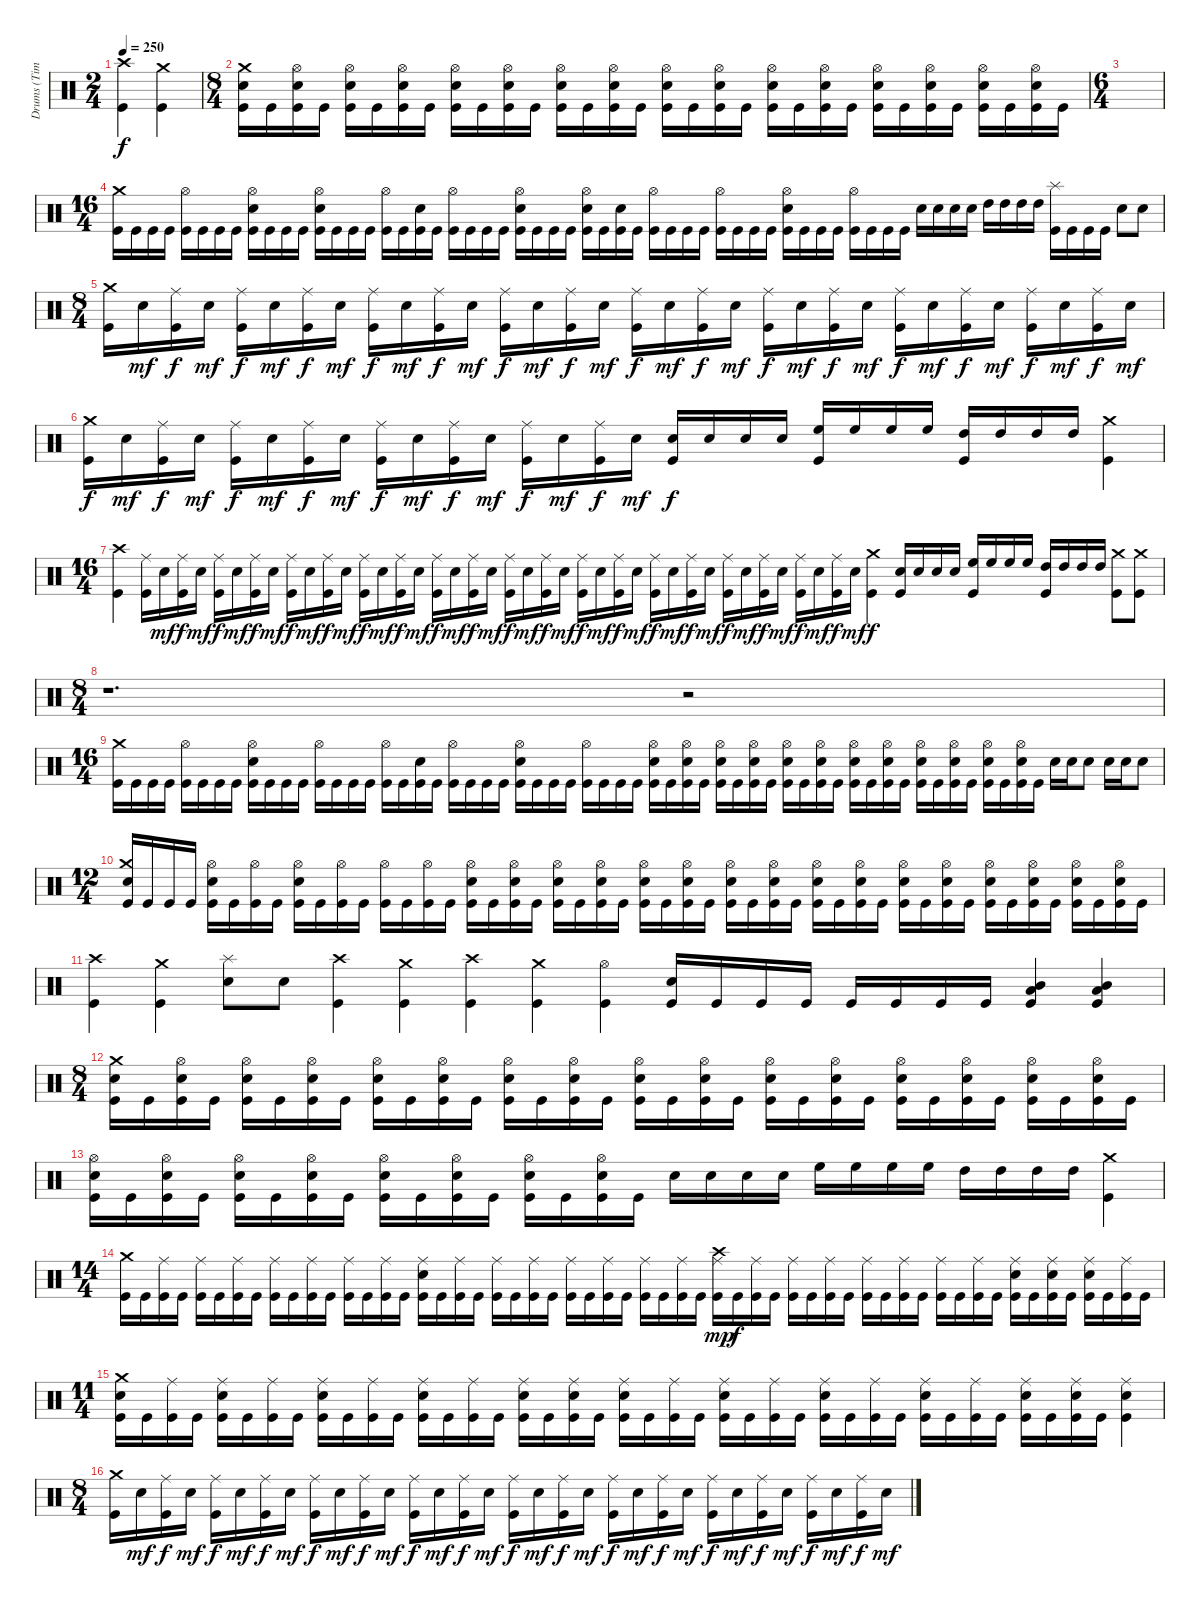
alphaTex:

\track ("Drums (Tim Yeung)" "Drums (Tim") {instrument percussion}
\staff {score}
\articulation defaults
\ts (2 4)
\tempo 250
\clef neutral
\ks c
("Crash high (hit)" "Kick (hit)").4{dy f} ("Crash medium (hit)" "Kick (hit)").4 |
\ts (8 4)
("Crash medium (hit)" "Electric Snare (hit)" "Kick (hit)").16 "Kick (hit)".16 ("Hi-Hat (open)" "Electric Snare (hit)" "Kick (hit)").16 "Kick (hit)".16 ("Hi-Hat (open)" "Electric Snare (hit)" "Kick (hit)").16 "Kick (hit)".16 ("Hi-Hat (open)" "Electric Snare (hit)" "Kick (hit)").16 "Kick (hit)".16 ("Hi-Hat (open)" "Electric Snare (hit)" "Kick (hit)").16 "Kick (hit)".16 ("Hi-Hat (open)" "Electric Snare (hit)" "Kick (hit)").16 "Kick (hit)".16 ("Hi-Hat (open)" "Electric Snare (hit)" "Kick (hit)").16 "Kick (hit)".16 ("Hi-Hat (open)" "Electric Snare (hit)" "Kick (hit)").16 "Kick (hit)".16 ("Hi-Hat (open)" "Electric Snare (hit)" "Kick (hit)").16 "Kick (hit)".16 ("Hi-Hat (open)" "Electric Snare (hit)" "Kick (hit)").16 "Kick (hit)".16 ("Hi-Hat (open)" "Electric Snare (hit)" "Kick (hit)").16 "Kick (hit)".16 ("Hi-Hat (open)" "Electric Snare (hit)" "Kick (hit)").16 "Kick (hit)".16 ("Hi-Hat (open)" "Electric Snare (hit)" "Kick (hit)").16 "Kick (hit)".16 ("Hi-Hat (open)" "Electric Snare (hit)" "Kick (hit)").16 "Kick (hit)".16 ("Hi-Hat (open)" "Electric Snare (hit)" "Kick (hit)").16 "Kick (hit)".16 ("Hi-Hat (open)" "Electric Snare (hit)" "Kick (hit)").16 "Kick (hit)".16 |
\ts (6 4)
|
\ts (16 4)
("Crash medium (hit)" "Kick (hit)").16 "Kick (hit)".16 "Kick (hit)".16 "Kick (hit)".16 ("Hi-Hat (open)" "Kick (hit)").16 "Kick (hit)".16 "Kick (hit)".16 "Kick (hit)".16 ("Hi-Hat (open)" "Electric Snare (hit)" "Kick (hit)").16 "Kick (hit)".16 "Kick (hit)".16 "Kick (hit)".16 ("Hi-Hat (open)" "Electric Snare (hit)" "Kick (hit)").16 "Kick (hit)".16 "Kick (hit)".16 "Kick (hit)".16 ("Hi-Hat (open)" "Kick (hit)").16 "Kick (hit)".16 ("Electric Snare (hit)" "Kick (hit)").16 "Kick (hit)".16 ("Hi-Hat (open)" "Kick (hit)").16 "Kick (hit)".16 "Kick (hit)".16 "Kick (hit)".16 ("Hi-Hat (open)" "Electric Snare (hit)" "Kick (hit)").16 "Kick (hit)".16 "Kick (hit)".16 "Kick (hit)".16 ("Hi-Hat (open)" "Electric Snare (hit)" "Kick (hit)").16 "Kick (hit)".16 ("Electric Snare (hit)" "Kick (hit)").16 "Kick (hit)".16 ("Hi-Hat (open)" "Kick (hit)").16 "Kick (hit)".16 "Kick (hit)".16 "Kick (hit)".16 ("Hi-Hat (open)" "Kick (hit)").16 "Kick (hit)".16 "Kick (hit)".16 "Kick (hit)".16 ("Hi-Hat (open)" "Electric Snare (hit)" "Kick (hit)").16 "Kick (hit)".16 "Kick (hit)".16 "Kick (hit)".16 ("Hi-Hat (open)" "Kick (hit)").16 "Kick (hit)".16 "Kick (hit)".16 "Kick (hit)".16 "Electric Snare (hit)".16 "Electric Snare (hit)".16 "Electric Snare (hit)".16 "Electric Snare (hit)".16 "High Tom (hit)".16 "High Tom (hit)".16 "High Tom (hit)".16 "High Tom (hit)".16 ("Splash (hit)" "Kick (hit)").16 "Kick (hit)".16 "Kick (hit)".16 "Kick (hit)".16 "Electric Snare (hit)".8 "Electric Snare (hit)".8 |
\ts (8 4)
("Crash medium (hit)" "Kick (hit)").16 "Electric Snare (hit)".16{dy mf} ("Ride (middle)" "Kick (hit)").16{dy f} "Electric Snare (hit)".16{dy mf} ("Ride (middle)" "Kick (hit)").16{dy f} "Electric Snare (hit)".16{dy mf} ("Ride (middle)" "Kick (hit)").16{dy f} "Electric Snare (hit)".16{dy mf} ("Ride (middle)" "Kick (hit)").16{dy f} "Electric Snare (hit)".16{dy mf} ("Ride (middle)" "Kick (hit)").16{dy f} "Electric Snare (hit)".16{dy mf} ("Ride (middle)" "Kick (hit)").16{dy f} "Electric Snare (hit)".16{dy mf} ("Ride (middle)" "Kick (hit)").16{dy f} "Electric Snare (hit)".16{dy mf} ("Ride (middle)" "Kick (hit)").16{dy f} "Electric Snare (hit)".16{dy mf} ("Ride (middle)" "Kick (hit)").16{dy f} "Electric Snare (hit)".16{dy mf} ("Ride (middle)" "Kick (hit)").16{dy f} "Electric Snare (hit)".16{dy mf} ("Ride (middle)" "Kick (hit)").16{dy f} "Electric Snare (hit)".16{dy mf} ("Ride (middle)" "Kick (hit)").16{dy f} "Electric Snare (hit)".16{dy mf} ("Ride (middle)" "Kick (hit)").16{dy f} "Electric Snare (hit)".16{dy mf} ("Ride (middle)" "Kick (hit)").16{dy f} "Electric Snare (hit)".16{dy mf} ("Ride (middle)" "Kick (hit)").16{dy f} "Electric Snare (hit)".16{dy mf} |
("Crash medium (hit)" "Kick (hit)").16{dy f} "Electric Snare (hit)".16{dy mf} ("Ride (middle)" "Kick (hit)").16{dy f} "Electric Snare (hit)".16{dy mf} ("Ride (middle)" "Kick (hit)").16{dy f} "Electric Snare (hit)".16{dy mf} ("Ride (middle)" "Kick (hit)").16{dy f} "Electric Snare (hit)".16{dy mf} ("Ride (middle)" "Kick (hit)").16{dy f} "Electric Snare (hit)".16{dy mf} ("Ride (middle)" "Kick (hit)").16{dy f} "Electric Snare (hit)".16{dy mf} ("Ride (middle)" "Kick (hit)").16{dy f} "Electric Snare (hit)".16{dy mf} ("Ride (middle)" "Kick (hit)").16{dy f} "Electric Snare (hit)".16{dy mf} ("Electric Snare (hit)" "Kick (hit)").16{dy f} "Electric Snare (hit)".16 "Electric Snare (hit)".16 "Electric Snare (hit)".16 ("High Floor Tom (hit)" "Kick (hit)").16 "High Floor Tom (hit)".16 "High Floor Tom (hit)".16 "High Floor Tom (hit)".16 ("High Tom (hit)" "Kick (hit)").16 "High Tom (hit)".16 "High Tom (hit)".16 "High Tom (hit)".16 ("Crash medium (hit)" "Kick (hit)").4 |
\ts (16 4)
("Crash high (hit)" "Kick (hit)").4 ("Ride (middle)" "Kick (hit)").16 "Electric Snare (hit)".16{dy mf} ("Ride (middle)" "Kick (hit)").16{dy f} "Electric Snare (hit)".16{dy mf} ("Ride (middle)" "Kick (hit)").16{dy f} "Electric Snare (hit)".16{dy mf} ("Ride (middle)" "Kick (hit)").16{dy f} "Electric Snare (hit)".16{dy mf} ("Ride (middle)" "Kick (hit)").16{dy f} "Electric Snare (hit)".16{dy mf} ("Ride (middle)" "Kick (hit)").16{dy f} "Electric Snare (hit)".16{dy mf} ("Ride (middle)" "Kick (hit)").16{dy f} "Electric Snare (hit)".16{dy mf} ("Ride (middle)" "Kick (hit)").16{dy f} "Electric Snare (hit)".16{dy mf} ("Ride (middle)" "Kick (hit)").16{dy f} "Electric Snare (hit)".16{dy mf} ("Ride (middle)" "Kick (hit)").16{dy f} "Electric Snare (hit)".16{dy mf} ("Ride (middle)" "Kick (hit)").16{dy f} "Electric Snare (hit)".16{dy mf} ("Ride (middle)" "Kick (hit)").16{dy f} "Electric Snare (hit)".16{dy mf} ("Ride (middle)" "Kick (hit)").16{dy f} "Electric Snare (hit)".16{dy mf} ("Ride (middle)" "Kick (hit)").16{dy f} "Electric Snare (hit)".16{dy mf} ("Ride (middle)" "Kick (hit)").16{dy f} "Electric Snare (hit)".16{dy mf} ("Ride (middle)" "Kick (hit)").16{dy f} "Electric Snare (hit)".16{dy mf} ("Ride (middle)" "Kick (hit)").16{dy f} "Electric Snare (hit)".16{dy mf} ("Ride (middle)" "Kick (hit)").16{dy f} "Electric Snare (hit)".16{dy mf} ("Ride (middle)" "Kick (hit)").16{dy f} "Electric Snare (hit)".16{dy mf} ("Ride (middle)" "Kick (hit)").16{dy f} "Electric Snare (hit)".16{dy mf} ("Crash medium (hit)" "Kick (hit)").4{dy f} ("Electric Snare (hit)" "Kick (hit)").16 "Electric Snare (hit)".16 "Electric Snare (hit)".16 "Electric Snare (hit)".16 ("High Floor Tom (hit)" "Kick (hit)").16 "High Floor Tom (hit)".16 "High Floor Tom (hit)".16 "High Floor Tom (hit)".16 ("High Tom (hit)" "Kick (hit)").16 "High Tom (hit)".16 "High Tom (hit)".16 "High Tom (hit)".16 ("Crash medium (hit)" "Kick (hit)").8 ("Crash medium (hit)" "Kick (hit)").8 |
\ts (8 4)
r.1{d volume 0} r.2 |
\ts (16 4)
("Crash medium (hit)" "Kick (hit)").16{volume 16} "Kick (hit)".16 "Kick (hit)".16 "Kick (hit)".16 ("Hi-Hat (open)" "Kick (hit)").16 "Kick (hit)".16 "Kick (hit)".16 "Kick (hit)".16 ("Hi-Hat (open)" "Electric Snare (hit)" "Kick (hit)").16 "Kick (hit)".16 "Kick (hit)".16 "Kick (hit)".16 ("Hi-Hat (open)" "Kick (hit)").16 "Kick (hit)".16 "Kick (hit)".16 "Kick (hit)".16 ("Hi-Hat (open)" "Kick (hit)").16 "Kick (hit)".16 ("Electric Snare (hit)" "Kick (hit)").16 "Kick (hit)".16 ("Hi-Hat (open)" "Kick (hit)").16 "Kick (hit)".16 "Kick (hit)".16 "Kick (hit)".16 ("Hi-Hat (open)" "Electric Snare (hit)" "Kick (hit)").16 "Kick (hit)".16 "Kick (hit)".16 "Kick (hit)".16 ("Hi-Hat (open)" "Kick (hit)").16 "Kick (hit)".16 "Kick (hit)".16 "Kick (hit)".16 ("Hi-Hat (open)" "Electric Snare (hit)" "Kick (hit)").16 "Kick (hit)".16 ("Hi-Hat (open)" "Electric Snare (hit)" "Kick (hit)").16 "Kick (hit)".16 ("Hi-Hat (open)" "Electric Snare (hit)" "Kick (hit)").16 "Kick (hit)".16 ("Hi-Hat (open)" "Electric Snare (hit)" "Kick (hit)").16 "Kick (hit)".16 ("Hi-Hat (open)" "Electric Snare (hit)" "Kick (hit)").16 "Kick (hit)".16 ("Hi-Hat (open)" "Electric Snare (hit)" "Kick (hit)").16 "Kick (hit)".16 ("Hi-Hat (open)" "Electric Snare (hit)" "Kick (hit)").16 "Kick (hit)".16 ("Hi-Hat (open)" "Electric Snare (hit)" "Kick (hit)").16 "Kick (hit)".16 ("Hi-Hat (open)" "Electric Snare (hit)" "Kick (hit)").16 "Kick (hit)".16 ("Hi-Hat (open)" "Electric Snare (hit)" "Kick (hit)").16 "Kick (hit)".16 ("Hi-Hat (open)" "Electric Snare (hit)" "Kick (hit)").16 "Kick (hit)".16 ("Hi-Hat (open)" "Electric Snare (hit)" "Kick (hit)").16 "Kick (hit)".16 "Electric Snare (hit)".16 "Electric Snare (hit)".16 "Electric Snare (hit)".8 "Electric Snare (hit)".16 "Electric Snare (hit)".16 "Electric Snare (hit)".8 |
\ts (12 4)
("Crash medium (hit)" "Electric Snare (hit)" "Kick (hit)").16 "Kick (hit)".16 "Kick (hit)".16 "Kick (hit)".16 ("Hi-Hat (open)" "Electric Snare (hit)" "Kick (hit)").16 "Kick (hit)".16 ("Hi-Hat (open)" "Kick (hit)").16 "Kick (hit)".16 ("Hi-Hat (open)" "Electric Snare (hit)" "Kick (hit)").16 "Kick (hit)".16 ("Hi-Hat (open)" "Kick (hit)").16 "Kick (hit)".16 ("Hi-Hat (open)" "Kick (hit)").16 "Kick (hit)".16 ("Hi-Hat (open)" "Kick (hit)").16 "Kick (hit)".16 ("Hi-Hat (open)" "Electric Snare (hit)" "Kick (hit)").16 "Kick (hit)".16 ("Hi-Hat (open)" "Electric Snare (hit)" "Kick (hit)").16 "Kick (hit)".16 ("Hi-Hat (open)" "Electric Snare (hit)" "Kick (hit)").16 "Kick (hit)".16 ("Hi-Hat (open)" "Electric Snare (hit)" "Kick (hit)").16 "Kick (hit)".16 ("Hi-Hat (open)" "Electric Snare (hit)" "Kick (hit)").16 "Kick (hit)".16 ("Hi-Hat (open)" "Electric Snare (hit)" "Kick (hit)").16 "Kick (hit)".16 ("Hi-Hat (open)" "Electric Snare (hit)" "Kick (hit)").16 "Kick (hit)".16 ("Hi-Hat (open)" "Electric Snare (hit)" "Kick (hit)").16 "Kick (hit)".16 ("Hi-Hat (open)" "Electric Snare (hit)" "Kick (hit)").16 "Kick (hit)".16 ("Hi-Hat (open)" "Electric Snare (hit)" "Kick (hit)").16 "Kick (hit)".16 ("Hi-Hat (open)" "Electric Snare (hit)" "Kick (hit)").16 "Kick (hit)".16 ("Hi-Hat (open)" "Electric Snare (hit)" "Kick (hit)").16 "Kick (hit)".16 ("Hi-Hat (open)" "Electric Snare (hit)" "Kick (hit)").16 "Kick (hit)".16 ("Hi-Hat (open)" "Electric Snare (hit)" "Kick (hit)").16 "Kick (hit)".16 ("Hi-Hat (open)" "Electric Snare (hit)" "Kick (hit)").16 "Kick (hit)".16 ("Hi-Hat (open)" "Electric Snare (hit)" "Kick (hit)").16 "Kick (hit)".16 |
("Crash high (hit)" "Kick (hit)").4 ("Crash medium (hit)" "Kick (hit)").4 ("Splash (hit)" "Electric Snare (hit)").8 "Electric Snare (hit)".8 ("Crash high (hit)" "Kick (hit)").4 ("Crash medium (hit)" "Kick (hit)").4 ("Crash high (hit)" "Kick (hit)").4 ("Crash medium (hit)" "Kick (hit)").4 ("Hi-Hat (open)" "Kick (hit)").4 ("Electric Snare (hit)" "Kick (hit)").16 "Kick (hit)".16 "Kick (hit)".16 "Kick (hit)".16 "Kick (hit)".16 "Kick (hit)".16 "Kick (hit)".16 "Kick (hit)".16 ("Mid Tom (hit)" "Low Tom (hit)" "Kick (hit)").4 ("Mid Tom (hit)" "Low Tom (hit)" "Kick (hit)").4 |
\ts (8 4)
("Crash medium (hit)" "Electric Snare (hit)" "Kick (hit)").16 "Kick (hit)".16 ("Hi-Hat (open)" "Electric Snare (hit)" "Kick (hit)").16 "Kick (hit)".16 ("Hi-Hat (open)" "Electric Snare (hit)" "Kick (hit)").16 "Kick (hit)".16 ("Hi-Hat (open)" "Electric Snare (hit)" "Kick (hit)").16 "Kick (hit)".16 ("Hi-Hat (open)" "Electric Snare (hit)" "Kick (hit)").16 "Kick (hit)".16 ("Hi-Hat (open)" "Electric Snare (hit)" "Kick (hit)").16 "Kick (hit)".16 ("Hi-Hat (open)" "Electric Snare (hit)" "Kick (hit)").16 "Kick (hit)".16 ("Hi-Hat (open)" "Electric Snare (hit)" "Kick (hit)").16 "Kick (hit)".16 ("Hi-Hat (open)" "Electric Snare (hit)" "Kick (hit)").16 "Kick (hit)".16 ("Hi-Hat (open)" "Electric Snare (hit)" "Kick (hit)").16 "Kick (hit)".16 ("Hi-Hat (open)" "Electric Snare (hit)" "Kick (hit)").16 "Kick (hit)".16 ("Hi-Hat (open)" "Electric Snare (hit)" "Kick (hit)").16 "Kick (hit)".16 ("Hi-Hat (open)" "Electric Snare (hit)" "Kick (hit)").16 "Kick (hit)".16 ("Hi-Hat (open)" "Electric Snare (hit)" "Kick (hit)").16 "Kick (hit)".16 ("Hi-Hat (open)" "Electric Snare (hit)" "Kick (hit)").16 "Kick (hit)".16 ("Hi-Hat (open)" "Electric Snare (hit)" "Kick (hit)").16 "Kick (hit)".16 |
("Hi-Hat (open)" "Electric Snare (hit)" "Kick (hit)").16 "Kick (hit)".16 ("Hi-Hat (open)" "Electric Snare (hit)" "Kick (hit)").16 "Kick (hit)".16 ("Hi-Hat (open)" "Electric Snare (hit)" "Kick (hit)").16 "Kick (hit)".16 ("Hi-Hat (open)" "Electric Snare (hit)" "Kick (hit)").16 "Kick (hit)".16 ("Hi-Hat (open)" "Electric Snare (hit)" "Kick (hit)").16 "Kick (hit)".16 ("Hi-Hat (open)" "Electric Snare (hit)" "Kick (hit)").16 "Kick (hit)".16 ("Hi-Hat (open)" "Electric Snare (hit)" "Kick (hit)").16 "Kick (hit)".16 ("Hi-Hat (open)" "Electric Snare (hit)" "Kick (hit)").16 "Kick (hit)".16 "Electric Snare (hit)".16 "Electric Snare (hit)".16 "Electric Snare (hit)".16 "Electric Snare (hit)".16 "High Floor Tom (hit)".16 "High Floor Tom (hit)".16 "High Floor Tom (hit)".16 "High Floor Tom (hit)".16 "High Tom (hit)".16 "High Tom (hit)".16 "High Tom (hit)".16 "High Tom (hit)".16 ("Crash medium (hit)" "Kick (hit)").4 |
\ts (14 4)
("Crash medium (hit)" "Kick (hit)").16 "Kick (hit)".16 ("Ride (middle)" "Kick (hit)").16 "Kick (hit)".16 ("Ride (middle)" "Kick (hit)").16 "Kick (hit)".16 ("Ride (middle)" "Kick (hit)").16 "Kick (hit)".16 ("Ride (middle)" "Kick (hit)").16 "Kick (hit)".16 ("Ride (middle)" "Kick (hit)").16 "Kick (hit)".16 ("Ride (middle)" "Kick (hit)").16 "Kick (hit)".16 ("Ride (middle)" "Kick (hit)").16 "Kick (hit)".16 ("Ride (middle)" "Electric Snare (hit)" "Kick (hit)").16 "Kick (hit)".16 ("Ride (middle)" "Kick (hit)").16 "Kick (hit)".16 ("Ride (middle)" "Kick (hit)").16 "Kick (hit)".16 ("Ride (middle)" "Kick (hit)").16 "Kick (hit)".16 ("Ride (middle)" "Kick (hit)").16 "Kick (hit)".16 ("Ride (middle)" "Kick (hit)").16 "Kick (hit)".16 ("Ride (middle)" "Kick (hit)").16 "Kick (hit)".16 ("Ride (middle)" "Kick (hit)").16 "Kick (hit)".16 ("Crash high (hit)" "Ride (middle)" "Kick (hit)").16{dy mp} "Kick (hit)".16{dy f} ("Ride (middle)" "Kick (hit)").16 "Kick (hit)".16 ("Ride (middle)" "Kick (hit)").16 "Kick (hit)".16 ("Ride (middle)" "Kick (hit)").16 "Kick (hit)".16 ("Ride (middle)" "Kick (hit)").16 "Kick (hit)".16 ("Ride (middle)" "Kick (hit)").16 "Kick (hit)".16 ("Ride (middle)" "Kick (hit)").16 "Kick (hit)".16 ("Ride (middle)" "Kick (hit)").16 "Kick (hit)".16 ("Ride (middle)" "Electric Snare (hit)" "Kick (hit)").16 "Kick (hit)".16 ("Ride (middle)" "Electric Snare (hit)" "Kick (hit)").16 "Kick (hit)".16 ("Ride (middle)" "Electric Snare (hit)" "Kick (hit)").16 "Kick (hit)".16 ("Ride (middle)" "Kick (hit)").16 "Kick (hit)".16 |
\ts (11 4)
("Crash medium (hit)" "Electric Snare (hit)" "Kick (hit)").16 "Kick (hit)".16 ("Ride (middle)" "Kick (hit)").16 "Kick (hit)".16 ("Ride (middle)" "Electric Snare (hit)" "Kick (hit)").16 "Kick (hit)".16 ("Ride (middle)" "Kick (hit)").16 "Kick (hit)".16 ("Ride (middle)" "Electric Snare (hit)" "Kick (hit)").16 "Kick (hit)".16 ("Ride (middle)" "Kick (hit)").16 "Kick (hit)".16 ("Ride (middle)" "Electric Snare (hit)" "Kick (hit)").16 "Kick (hit)".16 ("Ride (middle)" "Kick (hit)").16 "Kick (hit)".16 ("Ride (middle)" "Electric Snare (hit)" "Kick (hit)").16 "Kick (hit)".16 ("Ride (middle)" "Electric Snare (hit)" "Kick (hit)").16 "Kick (hit)".16 ("Ride (middle)" "Electric Snare (hit)" "Kick (hit)").16 "Kick (hit)".16 ("Ride (middle)" "Kick (hit)").16 "Kick (hit)".16 ("Ride (middle)" "Electric Snare (hit)" "Kick (hit)").16 "Kick (hit)".16 ("Ride (middle)" "Kick (hit)").16 "Kick (hit)".16 ("Ride (middle)" "Electric Snare (hit)" "Kick (hit)").16 "Kick (hit)".16 ("Ride (middle)" "Kick (hit)").16 "Kick (hit)".16 ("Ride (middle)" "Electric Snare (hit)" "Kick (hit)").16 "Kick (hit)".16 ("Ride (middle)" "Kick (hit)").16 "Kick (hit)".16 ("Ride (middle)" "Electric Snare (hit)" "Kick (hit)").16 "Kick (hit)".16 ("Ride (middle)" "Electric Snare (hit)" "Kick (hit)").16 "Kick (hit)".16 ("Ride (middle)" "Electric Snare (hit)" "Kick (hit)").4 |
\ts (8 4)
("Crash medium (hit)" "Kick (hit)").16 "Electric Snare (hit)".16{dy mf} ("Ride (middle)" "Kick (hit)").16{dy f} "Electric Snare (hit)".16{dy mf} ("Ride (middle)" "Kick (hit)").16{dy f} "Electric Snare (hit)".16{dy mf} ("Ride (middle)" "Kick (hit)").16{dy f} "Electric Snare (hit)".16{dy mf} ("Ride (middle)" "Kick (hit)").16{dy f} "Electric Snare (hit)".16{dy mf} ("Ride (middle)" "Kick (hit)").16{dy f} "Electric Snare (hit)".16{dy mf} ("Ride (middle)" "Kick (hit)").16{dy f} "Electric Snare (hit)".16{dy mf} ("Ride (middle)" "Kick (hit)").16{dy f} "Electric Snare (hit)".16{dy mf} ("Ride (middle)" "Kick (hit)").16{dy f} "Electric Snare (hit)".16{dy mf} ("Ride (middle)" "Kick (hit)").16{dy f} "Electric Snare (hit)".16{dy mf} ("Ride (middle)" "Kick (hit)").16{dy f} "Electric Snare (hit)".16{dy mf} ("Ride (middle)" "Kick (hit)").16{dy f} "Electric Snare (hit)".16{dy mf} ("Ride (middle)" "Kick (hit)").16{dy f} "Electric Snare (hit)".16{dy mf} ("Ride (middle)" "Kick (hit)").16{dy f} "Electric Snare (hit)".16{dy mf} ("Ride (middle)" "Kick (hit)").16{dy f} "Electric Snare (hit)".16{dy mf} ("Ride (middle)" "Kick (hit)").16{dy f} "Electric Snare (hit)".16{dy mf}
